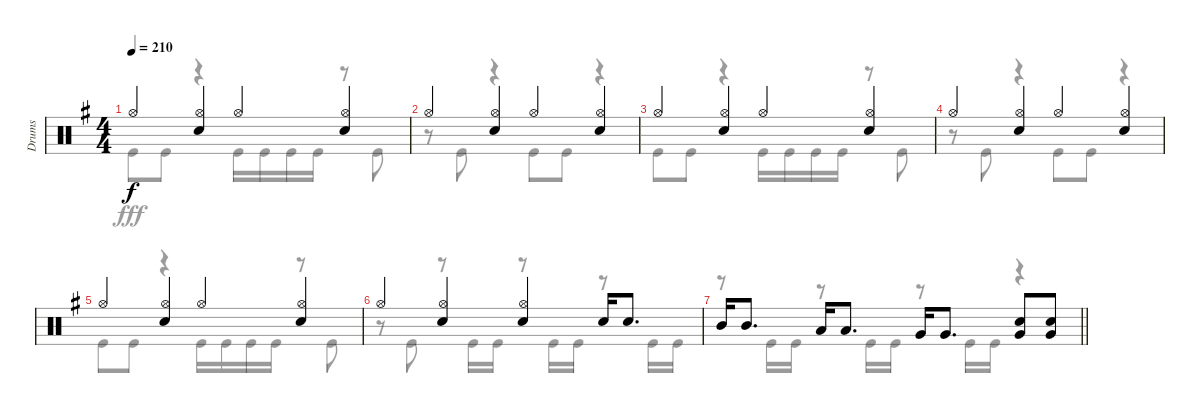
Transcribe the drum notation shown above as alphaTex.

\track ("Drums" "Drums") {instrument percussion}
\staff {score}
\articulation defaults
\voice
\ts (4 4)
\tempo 210
\clef neutral
\ks g "Hi-Hat (open)".4{dy f}
("Hi-Hat (open)" "Snare (hit) 2").4 "Hi-Hat (open)".4 ("Hi-Hat (open)" "Snare (hit) 2").4 |
"Hi-Hat (open)".4 ("Hi-Hat (open)" "Snare (hit) 2").4 "Hi-Hat (open)".4 ("Hi-Hat (open)" "Snare (hit) 2").4 |
"Hi-Hat (open)".4 ("Hi-Hat (open)" "Snare (hit) 2").4 "Hi-Hat (open)".4 ("Hi-Hat (open)" "Snare (hit) 2").4 |
"Hi-Hat (open)".4 ("Hi-Hat (open)" "Snare (hit) 2").4 "Hi-Hat (open)".4 ("Hi-Hat (open)" "Snare (hit) 2").4 |
"Hi-Hat (open)".4 ("Hi-Hat (open)" "Snare (hit) 2").4 "Hi-Hat (open)".4 ("Hi-Hat (open)" "Snare (hit) 2").4 |
"Hi-Hat (open)".4 ("Hi-Hat (open)" "Snare (hit) 2").4 ("Hi-Hat (open)" "Snare (hit) 2").4 "Snare (hit) 2".16 "Snare (hit) 2".8{d} |
\barLineRight lightlight "Mid Tom (hit)".16 "Mid Tom (hit)".8{d} "Low Tom (hit)".16 "Low Tom (hit)".8{d} "Very Low Tom (hit)".16 "Very Low Tom (hit)".8{d}
("Snare (hit) 2" "Very Low Tom (hit)").8 ("Snare (hit) 2" "Very Low Tom (hit)").8
\voice
\clef neutral
\ottava regular
\simile none
\ks g "Kick (hit)".8{dy fff} "Kick (hit)".8
r.4 "Kick (hit)".16 "Kick (hit)".16 "Kick (hit)".16 "Kick (hit)".16 r.8 "Kick (hit)".8 |
r.8 "Kick (hit)".8 r.4 "Kick (hit)".8 "Kick (hit)".8 r.4 |
"Kick (hit)".8 "Kick (hit)".8 r.4 "Kick (hit)".16 "Kick (hit)".16 "Kick (hit)".16 "Kick (hit)".16 r.8 "Kick (hit)".8 |
r.8 "Kick (hit)".8 r.4 "Kick (hit)".8 "Kick (hit)".8 r.4 |
"Kick (hit)".8 "Kick (hit)".8 r.4 "Kick (hit)".16 "Kick (hit)".16 "Kick (hit)".16 "Kick (hit)".16 r.8 "Kick (hit)".8 |
r.8 "Kick (hit)".8 r.8 "Kick (hit)".16 "Kick (hit)".16 r.8 "Kick (hit)".16 "Kick (hit)".16 r.8 "Kick (hit)".16 "Kick (hit)".16 |
\barLineRight lightlight
r.8 "Kick (hit)".16 "Kick (hit)".16 r.8 "Kick (hit)".16 "Kick (hit)".16 r.8 "Kick (hit)".16 "Kick (hit)".16 r.4
